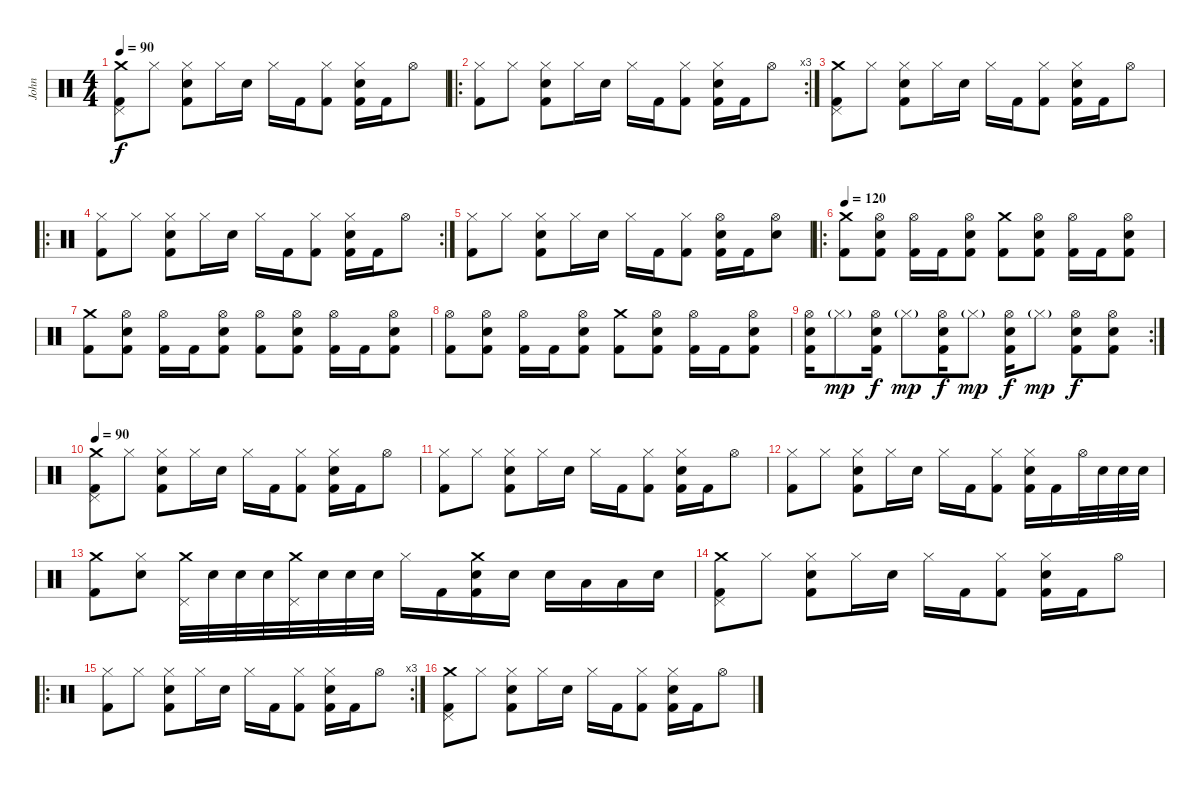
\track ("John" "John") {instrument percussion}
\staff {score}
\articulation defaults
\ts (4 4)
\tempo 90
\clef neutral
\ks c
("Crash medium (hit)" "Kick (hit) 2" "Pedal Hi-Hat (hit)").8{dy f} "Hi-Hat (closed)".8 ("Kick (hit) 2" "Hi-Hat (closed)" "Electric Snare (hit)").8 "Hi-Hat (closed)".16 "Electric Snare (hit)".16 "Hi-Hat (closed)".16 "Kick (hit) 2".16 ("Kick (hit) 2" "Hi-Hat (closed)").8 ("Kick (hit) 2" "Hi-Hat (closed)" "Electric Snare (hit)").16 "Kick (hit) 2".16 "Hi-Hat (open)".8 |
\ro
\rc 3
("Kick (hit) 2" "Hi-Hat (closed)").8 "Hi-Hat (closed)".8 ("Kick (hit) 2" "Hi-Hat (closed)" "Electric Snare (hit)").8 "Hi-Hat (closed)".16 "Electric Snare (hit)".16 "Hi-Hat (closed)".16 "Kick (hit) 2".16 ("Kick (hit) 2" "Hi-Hat (closed)").8 ("Kick (hit) 2" "Hi-Hat (closed)" "Electric Snare (hit)").16 "Kick (hit) 2".16 "Hi-Hat (open)".8 |
("Crash medium (hit)" "Kick (hit) 2" "Pedal Hi-Hat (hit)").8 "Hi-Hat (closed)".8 ("Kick (hit) 2" "Hi-Hat (closed)" "Electric Snare (hit)").8 "Hi-Hat (closed)".16 "Electric Snare (hit)".16 "Hi-Hat (closed)".16 "Kick (hit) 2".16 ("Kick (hit) 2" "Hi-Hat (closed)").8 ("Kick (hit) 2" "Hi-Hat (closed)" "Electric Snare (hit)").16 "Kick (hit) 2".16 "Hi-Hat (open)".8 |
\ro
\rc 2
("Kick (hit) 2" "Hi-Hat (closed)").8 "Hi-Hat (closed)".8 ("Kick (hit) 2" "Hi-Hat (closed)" "Electric Snare (hit)").8 "Hi-Hat (closed)".16 "Electric Snare (hit)".16 "Hi-Hat (closed)".16 "Kick (hit) 2".16 ("Kick (hit) 2" "Hi-Hat (closed)").8 ("Kick (hit) 2" "Hi-Hat (closed)" "Electric Snare (hit)").16 "Kick (hit) 2".16 "Hi-Hat (open)".8 |
("Kick (hit) 2" "Hi-Hat (closed)").8 "Hi-Hat (closed)".8 ("Kick (hit) 2" "Hi-Hat (closed)" "Electric Snare (hit)").8 "Hi-Hat (closed)".16 "Electric Snare (hit)".16 "Hi-Hat (closed)".16 "Kick (hit) 2".16 ("Kick (hit) 2" "Hi-Hat (closed)").8 ("Kick (hit) 2" "Hi-Hat (open)" "Electric Snare (hit)").16 "Kick (hit) 2".16 ("Hi-Hat (open)" "Electric Snare (hit)").8 |
\ro
\tempo 120
("Crash medium (hit)" "Kick (hit) 2").8 ("Hi-Hat (open)" "Kick (hit) 2" "Electric Snare (hit)").8 ("Hi-Hat (open)" "Kick (hit) 2").16 "Kick (hit) 2".16 ("Hi-Hat (open)" "Kick (hit) 2" "Electric Snare (hit)").8 ("Crash medium (hit)" "Kick (hit) 2").8 ("Hi-Hat (open)" "Kick (hit) 2" "Electric Snare (hit)").8 ("Hi-Hat (open)" "Kick (hit) 2").16 "Kick (hit) 2".16 ("Hi-Hat (open)" "Kick (hit) 2" "Electric Snare (hit)").8 |
("Crash medium (hit)" "Kick (hit) 2").8 ("Hi-Hat (open)" "Kick (hit) 2" "Electric Snare (hit)").8 ("Hi-Hat (open)" "Kick (hit) 2").16 "Kick (hit) 2".16 ("Hi-Hat (open)" "Kick (hit) 2" "Electric Snare (hit)").8 ("Hi-Hat (open)" "Kick (hit) 2").8 ("Hi-Hat (open)" "Kick (hit) 2" "Electric Snare (hit)").8 ("Hi-Hat (open)" "Kick (hit) 2").16 "Kick (hit) 2".16 ("Hi-Hat (open)" "Kick (hit) 2" "Electric Snare (hit)").8 |
("Hi-Hat (open)" "Kick (hit) 2").8 ("Hi-Hat (open)" "Kick (hit) 2" "Electric Snare (hit)").8 ("Hi-Hat (open)" "Kick (hit) 2").16 "Kick (hit) 2".16 ("Hi-Hat (open)" "Kick (hit) 2" "Electric Snare (hit)").8 ("Crash medium (hit)" "Kick (hit) 2").8 ("Hi-Hat (open)" "Kick (hit) 2" "Electric Snare (hit)").8 ("Hi-Hat (open)" "Kick (hit) 2").16 "Kick (hit) 2".16 ("Hi-Hat (open)" "Kick (hit) 2" "Electric Snare (hit)").8 |
\rc 2
("Hi-Hat (open)" "Kick (hit) 2" "Electric Snare (hit)").16 "Hi-Hat (closed)"{g}.8{dy mp} ("Hi-Hat (open)" "Kick (hit) 2" "Electric Snare (hit)").16{dy f} "Hi-Hat (closed)"{g}.8{dy mp} ("Hi-Hat (open)" "Kick (hit) 2" "Electric Snare (hit)").16{dy f} "Hi-Hat (closed)"{g}.8{dy mp} ("Hi-Hat (open)" "Kick (hit) 2" "Electric Snare (hit)").16{dy f} "Hi-Hat (closed)"{g}.8{dy mp} ("Hi-Hat (open)" "Kick (hit) 2" "Electric Snare (hit)").8{dy f} ("Hi-Hat (open)" "Kick (hit) 2" "Electric Snare (hit)").8 |
\tempo 90
("Crash medium (hit)" "Kick (hit) 2" "Pedal Hi-Hat (hit)").8 "Hi-Hat (closed)".8 ("Kick (hit) 2" "Hi-Hat (closed)" "Electric Snare (hit)").8 "Hi-Hat (closed)".16 "Electric Snare (hit)".16 "Hi-Hat (closed)".16 "Kick (hit) 2".16 ("Kick (hit) 2" "Hi-Hat (closed)").8 ("Kick (hit) 2" "Hi-Hat (closed)" "Electric Snare (hit)").16 "Kick (hit) 2".16 "Hi-Hat (open)".8 |
("Kick (hit) 2" "Hi-Hat (closed)").8 "Hi-Hat (closed)".8 ("Kick (hit) 2" "Hi-Hat (closed)" "Electric Snare (hit)").8 "Hi-Hat (closed)".16 "Electric Snare (hit)".16 "Hi-Hat (closed)".16 "Kick (hit) 2".16 ("Kick (hit) 2" "Hi-Hat (closed)").8 ("Kick (hit) 2" "Hi-Hat (closed)" "Electric Snare (hit)").16 "Kick (hit) 2".16 "Hi-Hat (open)".8 |
("Kick (hit) 2" "Hi-Hat (closed)").8 "Hi-Hat (closed)".8 ("Kick (hit) 2" "Hi-Hat (closed)" "Electric Snare (hit)").8 "Hi-Hat (closed)".16 "Electric Snare (hit)".16 "Hi-Hat (closed)".16 "Kick (hit) 2".16 ("Kick (hit) 2" "Hi-Hat (closed)").8 ("Kick (hit) 2" "Hi-Hat (closed)" "Electric Snare (hit)").16 "Kick (hit) 2".16 "Hi-Hat (open)".32 "Electric Snare (hit)".32 "Electric Snare (hit)".32 "Electric Snare (hit)".32 |
("Crash medium (hit)" "Kick (hit) 2").8 ("Hi-Hat (closed)" "Electric Snare (hit)").8 ("Crash medium (hit)" "Pedal Hi-Hat (hit)").32 "Electric Snare (hit)".32 "Electric Snare (hit)".32 "Electric Snare (hit)".32 ("Crash medium (hit)" "Pedal Hi-Hat (hit)").32 "Electric Snare (hit)".32 "Electric Snare (hit)".32 "Electric Snare (hit)".32 "Hi-Hat (closed)".16 "Kick (hit) 2".16 ("Crash medium (hit)" "Kick (hit) 2" "Electric Snare (hit)").16 "Electric Snare (hit)".16 "Electric Snare (hit)".16 "Low Tom (hit)".16 "Low Floor Tom (hit)".16 "Electric Snare (hit)".16 |
("Crash medium (hit)" "Kick (hit) 2" "Pedal Hi-Hat (hit)").8 "Hi-Hat (closed)".8 ("Kick (hit) 2" "Hi-Hat (closed)" "Electric Snare (hit)").8 "Hi-Hat (closed)".16 "Electric Snare (hit)".16 "Hi-Hat (closed)".16 "Kick (hit) 2".16 ("Kick (hit) 2" "Hi-Hat (closed)").8 ("Kick (hit) 2" "Hi-Hat (closed)" "Electric Snare (hit)").16 "Kick (hit) 2".16 "Hi-Hat (open)".8 |
\ro
\rc 3
("Kick (hit) 2" "Hi-Hat (closed)").8 "Hi-Hat (closed)".8 ("Kick (hit) 2" "Hi-Hat (closed)" "Electric Snare (hit)").8 "Hi-Hat (closed)".16 "Electric Snare (hit)".16 "Hi-Hat (closed)".16 "Kick (hit) 2".16 ("Kick (hit) 2" "Hi-Hat (closed)").8 ("Kick (hit) 2" "Hi-Hat (closed)" "Electric Snare (hit)").16 "Kick (hit) 2".16 "Hi-Hat (open)".8 |
("Crash medium (hit)" "Kick (hit) 2" "Pedal Hi-Hat (hit)").8 "Hi-Hat (closed)".8 ("Kick (hit) 2" "Hi-Hat (closed)" "Electric Snare (hit)").8 "Hi-Hat (closed)".16 "Electric Snare (hit)".16 "Hi-Hat (closed)".16 "Kick (hit) 2".16 ("Kick (hit) 2" "Hi-Hat (closed)").8 ("Kick (hit) 2" "Hi-Hat (closed)" "Electric Snare (hit)").16 "Kick (hit) 2".16 "Hi-Hat (open)".8
